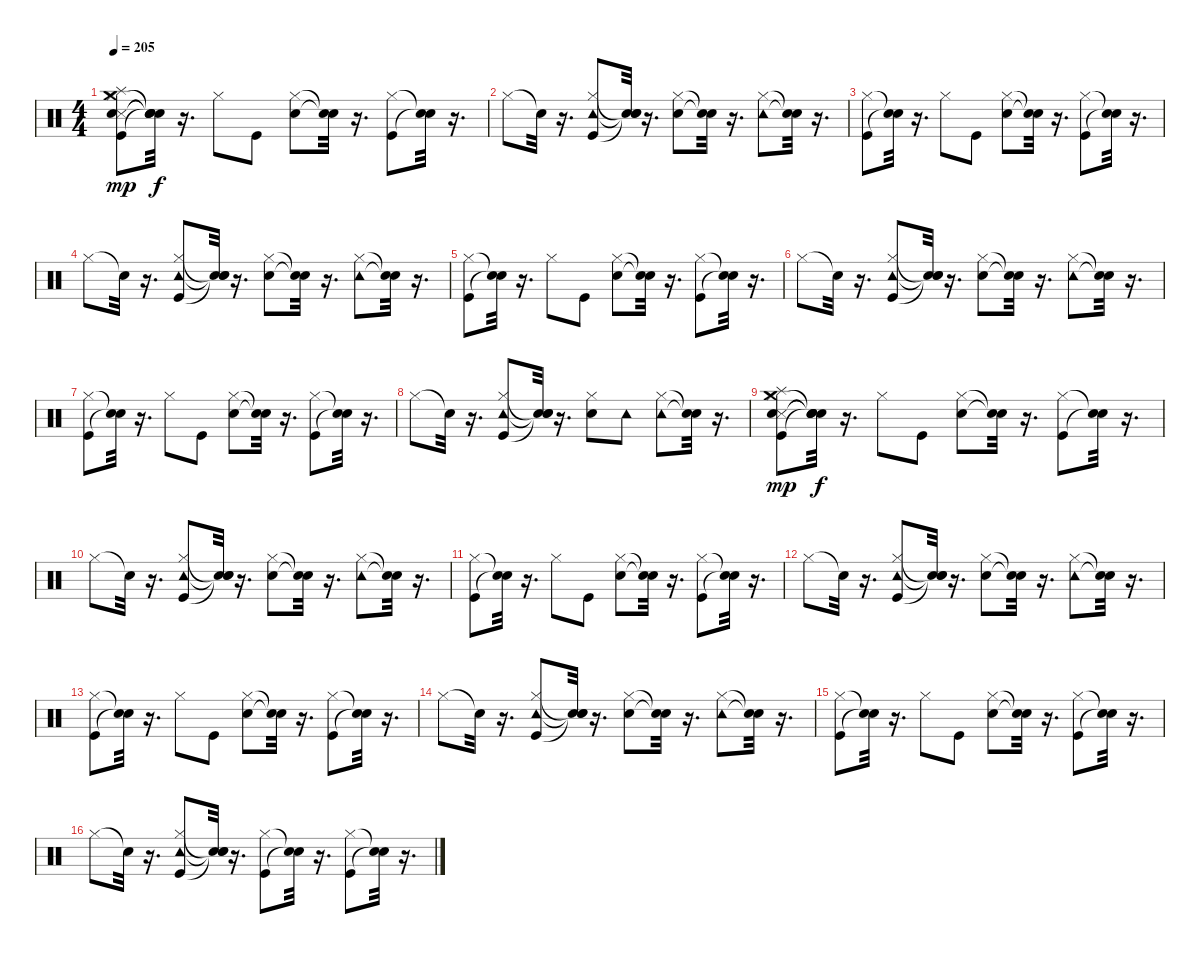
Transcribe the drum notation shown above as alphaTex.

\track "" {instrument percussion}
\staff {score}
\articulation defaults
\ts (4 4)
\tempo 205
\clef neutral
\ks c
("Metronome (hit)" "Snare (hit) 2" "Kick (hit)" "Hi-Hat (closed)" "Splash (hit)" "Crash medium (hit)").8{dy mp} ("Snare (hit)"{t} "Snare (hit)"{t} "Snare (hit)"{t} "Snare (hit)"{t}).32{dy f} r.16{d} "Hi-Hat (closed)".8 "Kick (hit)".8 ("Hi-Hat (closed)" "Electric Snare (hit)").8 ("Snare (hit)"{t} "Snare (hit)"{t}).32 r.16{d} ("Hi-Hat (closed)" "Kick (hit)").8 ("Snare (hit)"{t} "Snare (hit)"{t}).32 r.16{d} |
"Hi-Hat (closed)".8 "Snare (hit)"{t}.32 r.16{d} ("Hi-Hat (closed)" "Kick (hit)" "Tambourine (hit)").8 ("Snare (hit)"{t} "Snare (hit)"{t} "Snare (hit)"{t}).32 r.16{d} ("Hi-Hat (closed)" "Electric Snare (hit)").8 ("Snare (hit)"{t} "Snare (hit)"{t}).32 r.16{d} ("Hi-Hat (closed)" "Tambourine (hit)").8 ("Snare (hit)"{t} "Snare (hit)"{t}).32 r.16{d} |
("Kick (hit)" "Hi-Hat (closed)").8 ("Snare (hit)"{t} "Snare (hit)"{t}).32 r.16{d} "Hi-Hat (closed)".8 "Kick (hit)".8 ("Hi-Hat (closed)" "Electric Snare (hit)").8 ("Snare (hit)"{t} "Snare (hit)"{t}).32 r.16{d} ("Hi-Hat (closed)" "Kick (hit)").8 ("Snare (hit)"{t} "Snare (hit)"{t}).32 r.16{d} |
"Hi-Hat (closed)".8 "Snare (hit)"{t}.32 r.16{d} ("Hi-Hat (closed)" "Kick (hit)" "Tambourine (hit)").8 ("Snare (hit)"{t} "Snare (hit)"{t} "Snare (hit)"{t}).32 r.16{d} ("Hi-Hat (closed)" "Electric Snare (hit)").8 ("Snare (hit)"{t} "Snare (hit)"{t}).32 r.16{d} ("Hi-Hat (closed)" "Tambourine (hit)").8 ("Snare (hit)"{t} "Snare (hit)"{t}).32 r.16{d} |
("Kick (hit)" "Hi-Hat (closed)").8 ("Snare (hit)"{t} "Snare (hit)"{t}).32 r.16{d} "Hi-Hat (closed)".8 "Kick (hit)".8 ("Hi-Hat (closed)" "Electric Snare (hit)").8 ("Snare (hit)"{t} "Snare (hit)"{t}).32 r.16{d} ("Hi-Hat (closed)" "Kick (hit)").8 ("Snare (hit)"{t} "Snare (hit)"{t}).32 r.16{d} |
"Hi-Hat (closed)".8 "Snare (hit)"{t}.32 r.16{d} ("Hi-Hat (closed)" "Kick (hit)" "Tambourine (hit)").8 ("Snare (hit)"{t} "Snare (hit)"{t} "Snare (hit)"{t}).32 r.16{d} ("Hi-Hat (closed)" "Electric Snare (hit)").8 ("Snare (hit)"{t} "Snare (hit)"{t}).32 r.16{d} ("Hi-Hat (closed)" "Tambourine (hit)").8 ("Snare (hit)"{t} "Snare (hit)"{t}).32 r.16{d} |
("Kick (hit)" "Hi-Hat (closed)").8 ("Snare (hit)"{t} "Snare (hit)"{t}).32 r.16{d} "Hi-Hat (closed)".8 "Kick (hit)".8 ("Hi-Hat (closed)" "Electric Snare (hit)").8 ("Snare (hit)"{t} "Snare (hit)"{t}).32 r.16{d} ("Hi-Hat (closed)" "Kick (hit)").8 ("Snare (hit)"{t} "Snare (hit)"{t}).32 r.16{d} |
"Hi-Hat (closed)".8 "Snare (hit)"{t}.32 r.16{d} ("Hi-Hat (closed)" "Kick (hit)" "Tambourine (hit)").8 ("Snare (hit)"{t} "Snare (hit)"{t} "Snare (hit)"{t}).32 r.16{d} ("Hi-Hat (closed)" "Electric Snare (hit)").8 "Tambourine (hit)".8 ("Hi-Hat (closed)" "Tambourine (hit)").8 ("Snare (hit)"{t} "Snare (hit)"{t}).32 r.16{d} |
("Metronome (hit)" "Snare (hit) 2" "Kick (hit)" "Hi-Hat (closed)" "Splash (hit)" "Crash medium (hit)").8{dy mp} ("Snare (hit)"{t} "Snare (hit)"{t} "Snare (hit)"{t} "Snare (hit)"{t}).32{dy f} r.16{d} "Hi-Hat (closed)".8 "Kick (hit)".8 ("Hi-Hat (closed)" "Electric Snare (hit)").8 ("Snare (hit)"{t} "Snare (hit)"{t}).32 r.16{d} ("Hi-Hat (closed)" "Kick (hit)").8 ("Snare (hit)"{t} "Snare (hit)"{t}).32 r.16{d} |
"Hi-Hat (closed)".8 "Snare (hit)"{t}.32 r.16{d} ("Hi-Hat (closed)" "Kick (hit)" "Tambourine (hit)").8 ("Snare (hit)"{t} "Snare (hit)"{t} "Snare (hit)"{t}).32 r.16{d} ("Hi-Hat (closed)" "Electric Snare (hit)").8 ("Snare (hit)"{t} "Snare (hit)"{t}).32 r.16{d} ("Hi-Hat (closed)" "Tambourine (hit)").8 ("Snare (hit)"{t} "Snare (hit)"{t}).32 r.16{d} |
("Kick (hit)" "Hi-Hat (closed)").8 ("Snare (hit)"{t} "Snare (hit)"{t}).32 r.16{d} "Hi-Hat (closed)".8 "Kick (hit)".8 ("Hi-Hat (closed)" "Electric Snare (hit)").8 ("Snare (hit)"{t} "Snare (hit)"{t}).32 r.16{d} ("Hi-Hat (closed)" "Kick (hit)").8 ("Snare (hit)"{t} "Snare (hit)"{t}).32 r.16{d} |
"Hi-Hat (closed)".8 "Snare (hit)"{t}.32 r.16{d} ("Hi-Hat (closed)" "Kick (hit)" "Tambourine (hit)").8 ("Snare (hit)"{t} "Snare (hit)"{t} "Snare (hit)"{t}).32 r.16{d} ("Hi-Hat (closed)" "Electric Snare (hit)").8 ("Snare (hit)"{t} "Snare (hit)"{t}).32 r.16{d} ("Hi-Hat (closed)" "Tambourine (hit)").8 ("Snare (hit)"{t} "Snare (hit)"{t}).32 r.16{d} |
("Kick (hit)" "Hi-Hat (closed)").8 ("Snare (hit)"{t} "Snare (hit)"{t}).32 r.16{d} "Hi-Hat (closed)".8 "Kick (hit)".8 ("Hi-Hat (closed)" "Electric Snare (hit)").8 ("Snare (hit)"{t} "Snare (hit)"{t}).32 r.16{d} ("Hi-Hat (closed)" "Kick (hit)").8 ("Snare (hit)"{t} "Snare (hit)"{t}).32 r.16{d} |
"Hi-Hat (closed)".8 "Snare (hit)"{t}.32 r.16{d} ("Hi-Hat (closed)" "Kick (hit)" "Tambourine (hit)").8 ("Snare (hit)"{t} "Snare (hit)"{t} "Snare (hit)"{t}).32 r.16{d} ("Hi-Hat (closed)" "Electric Snare (hit)").8 ("Snare (hit)"{t} "Snare (hit)"{t}).32 r.16{d} ("Hi-Hat (closed)" "Tambourine (hit)").8 ("Snare (hit)"{t} "Snare (hit)"{t}).32 r.16{d} |
("Kick (hit)" "Hi-Hat (closed)").8 ("Snare (hit)"{t} "Snare (hit)"{t}).32 r.16{d} "Hi-Hat (closed)".8 "Kick (hit)".8 ("Hi-Hat (closed)" "Electric Snare (hit)").8 ("Snare (hit)"{t} "Snare (hit)"{t}).32 r.16{d} ("Hi-Hat (closed)" "Kick (hit)").8 ("Snare (hit)"{t} "Snare (hit)"{t}).32 r.16{d} |
"Hi-Hat (closed)".8 "Snare (hit)"{t}.32 r.16{d} ("Hi-Hat (closed)" "Kick (hit)" "Tambourine (hit)").8 ("Snare (hit)"{t} "Snare (hit)"{t} "Snare (hit)"{t}).32 r.16{d} ("Hi-Hat (closed)" "Kick (hit)").8 ("Snare (hit)"{t} "Snare (hit)"{t}).32 r.16{d} ("Hi-Hat (closed)" "Kick (hit)").8 ("Snare (hit)"{t} "Snare (hit)"{t}).32 r.16{d}
